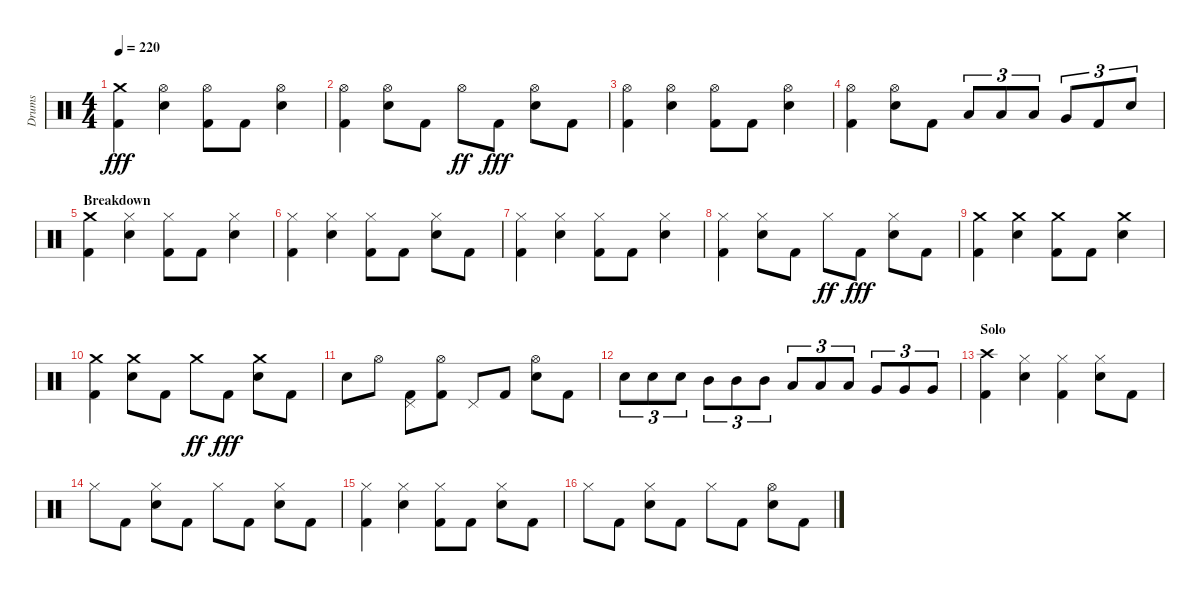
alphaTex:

\track ("Drums" "Drums") {instrument percussion}
\staff {score}
\articulation defaults
\ts (4 4)
\tempo 220
\clef neutral
\ks aminor
("Kick (hit) 2" "Crash medium (hit)").4{dy fff} ("Snare (hit) 2" "Hi-Hat (open)").4 ("Kick (hit) 2" "Hi-Hat (open)").8 "Kick (hit) 2".8 ("Snare (hit) 2" "Hi-Hat (open)").4 |
("Kick (hit) 2" "Hi-Hat (open)").4 ("Snare (hit) 2" "Hi-Hat (open)").8 "Kick (hit) 2".8 "Hi-Hat (open)".8{dy ff} "Kick (hit) 2".8{dy fff} ("Snare (hit) 2" "Hi-Hat (open)").8 "Kick (hit) 2".8 |
("Kick (hit) 2" "Hi-Hat (open)").4 ("Snare (hit) 2" "Hi-Hat (open)").4 ("Kick (hit) 2" "Hi-Hat (open)").8 "Kick (hit) 2".8 ("Snare (hit) 2" "Hi-Hat (open)").4 |
("Kick (hit) 2" "Hi-Hat (open)").4 ("Snare (hit) 2" "Hi-Hat (open)").8 "Kick (hit) 2".8 "Low Tom (hit)".8{tu (3 2)} "Low Tom (hit)".8{tu (3 2)} "Low Tom (hit)".8{tu (3 2)} "Very Low Tom (hit)".8{tu (3 2)} "Kick (hit) 2".8{tu (3 2)} "Snare (hit) 2".8{tu (3 2)} |
\section ("" "Breakdown")
("Kick (hit) 2" "Crash medium (hit)").4 ("Snare (hit) 2" "Hi-Hat (closed)").4 ("Kick (hit) 2" "Hi-Hat (closed)").8 "Kick (hit) 2".8 ("Snare (hit) 2" "Hi-Hat (closed)").4 |
("Kick (hit) 2" "Hi-Hat (closed)").4 ("Snare (hit) 2" "Hi-Hat (closed)").4 ("Kick (hit) 2" "Hi-Hat (closed)").8 "Kick (hit) 2".8 ("Snare (hit) 2" "Hi-Hat (closed)").8 "Kick (hit) 2".8 |
("Kick (hit) 2" "Hi-Hat (closed)").4 ("Snare (hit) 2" "Hi-Hat (closed)").4 ("Kick (hit) 2" "Hi-Hat (closed)").8 "Kick (hit) 2".8 ("Snare (hit) 2" "Hi-Hat (closed)").4 |
("Kick (hit) 2" "Hi-Hat (closed)").4 ("Snare (hit) 2" "Hi-Hat (closed)").8 "Kick (hit) 2".8 "Hi-Hat (closed)".8{dy ff} "Kick (hit) 2".8{dy fff} ("Snare (hit) 2" "Hi-Hat (closed)").8 "Kick (hit) 2".8 |
("Kick (hit) 2" "Crash medium (hit)").4 ("Snare (hit) 2" "Crash medium (hit)").4 ("Kick (hit) 2" "Crash medium (hit)").8 "Kick (hit) 2".8 ("Snare (hit) 2" "Crash medium (hit)").4 |
("Kick (hit) 2" "Crash medium (hit)").4 ("Snare (hit) 2" "Crash medium (hit)").8 "Kick (hit) 2".8 "Crash medium (hit)".8{dy ff} "Kick (hit) 2".8{dy fff} ("Snare (hit) 2" "Crash medium (hit)").8 "Kick (hit) 2".8 |
"Snare (hit) 2".8 "Hi-Hat (open)".8 ("Kick (hit) 2" "Pedal Hi-Hat (hit)").8 ("Kick (hit) 2" "Hi-Hat (open)").8 "Pedal Hi-Hat (hit)".8 "Kick (hit) 2".8 ("Snare (hit) 2" "Hi-Hat (open)").8 "Kick (hit) 2".8 |
"Snare (hit) 2".8{tu (3 2)} "Snare (hit) 2".8{tu (3 2)} "Snare (hit) 2".8{tu (3 2)} "Mid Tom (hit)".8{tu (3 2)} "Mid Tom (hit)".8{tu (3 2)} "Mid Tom (hit)".8{tu (3 2)} "Low Tom (hit)".8{tu (3 2)} "Low Tom (hit)".8{tu (3 2)} "Low Tom (hit)".8{tu (3 2)} "Very Low Tom (hit)".8{tu (3 2)} "Very Low Tom (hit)".8{tu (3 2)} "Very Low Tom (hit)".8{tu (3 2)} |
\section ("" "Solo")
("Kick (hit) 2" "Crash high (hit)").4 ("Snare (hit) 2" "Hi-Hat (closed)").4 ("Kick (hit) 2" "Hi-Hat (closed)").4 ("Snare (hit) 2" "Hi-Hat (closed)").8 "Kick (hit) 2".8 |
"Hi-Hat (closed)".8 "Kick (hit) 2".8 ("Snare (hit) 2" "Hi-Hat (closed)").8 "Kick (hit) 2".8 "Hi-Hat (closed)".8 "Kick (hit) 2".8 ("Snare (hit) 2" "Hi-Hat (closed)").8 "Kick (hit) 2".8 |
("Kick (hit) 2" "Hi-Hat (closed)").4 ("Snare (hit) 2" "Hi-Hat (closed)").4 ("Kick (hit) 2" "Hi-Hat (closed)").8 "Kick (hit) 2".8 ("Snare (hit) 2" "Hi-Hat (closed)").8 "Kick (hit) 2".8 |
"Hi-Hat (closed)".8 "Kick (hit) 2".8 ("Snare (hit) 2" "Hi-Hat (closed)").8 "Kick (hit) 2".8 "Hi-Hat (closed)".8 "Kick (hit) 2".8 ("Snare (hit) 2" "Hi-Hat (open)").8 "Kick (hit) 2".8
